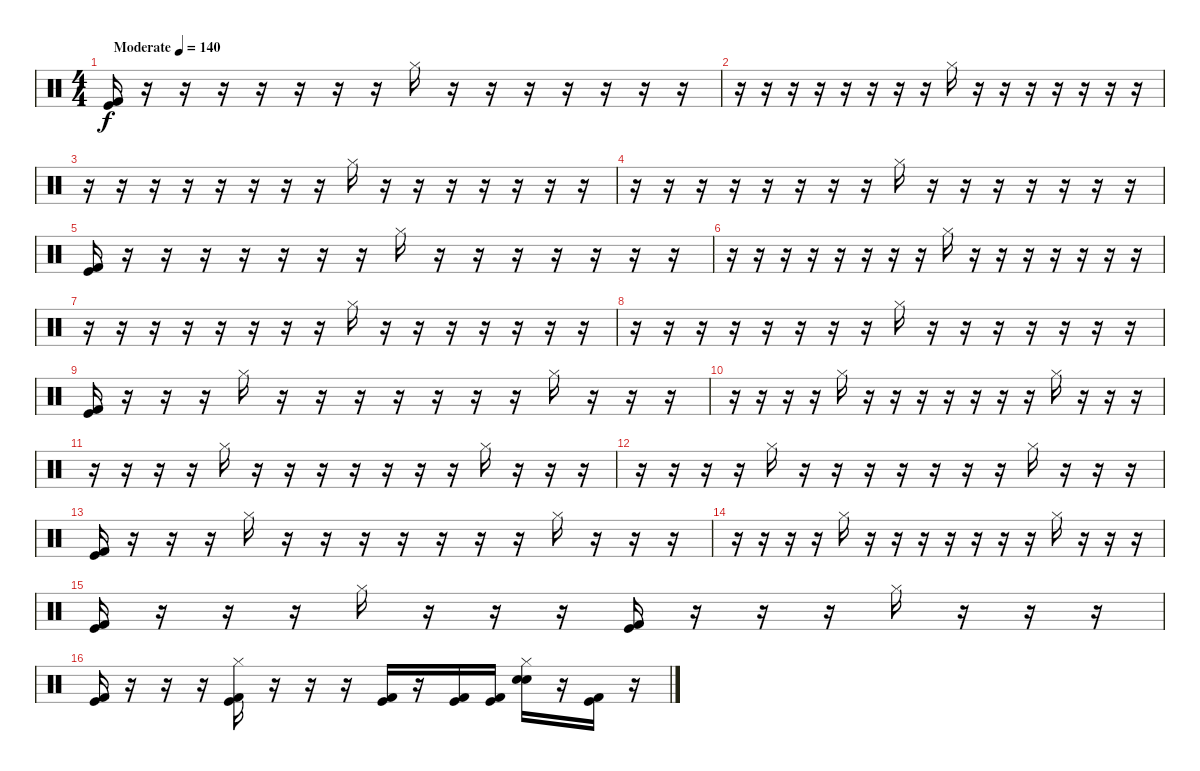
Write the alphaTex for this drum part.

\track "" {instrument percussion}
\staff {score}
\articulation defaults
\ts (4 4)
\tempo (140 "Moderate")
\clef neutral
\ks c
("Kick (hit)" "Kick (hit) 2").16{dy f} r.16 r.16 r.16 r.16 r.16 r.16 r.16 "Hi-Hat (closed)".16 r.16 r.16 r.16 r.16 r.16 r.16 r.16 |
r.16 r.16 r.16 r.16 r.16 r.16 r.16 r.16 "Hi-Hat (closed)".16 r.16 r.16 r.16 r.16 r.16 r.16 r.16 |
r.16 r.16 r.16 r.16 r.16 r.16 r.16 r.16 "Hi-Hat (closed)".16 r.16 r.16 r.16 r.16 r.16 r.16 r.16 |
r.16 r.16 r.16 r.16 r.16 r.16 r.16 r.16 "Hi-Hat (closed)".16 r.16 r.16 r.16 r.16 r.16 r.16 r.16 |
("Kick (hit)" "Kick (hit) 2").16 r.16 r.16 r.16 r.16 r.16 r.16 r.16 "Hi-Hat (closed)".16 r.16 r.16 r.16 r.16 r.16 r.16 r.16 |
r.16 r.16 r.16 r.16 r.16 r.16 r.16 r.16 "Hi-Hat (closed)".16 r.16 r.16 r.16 r.16 r.16 r.16 r.16 |
r.16 r.16 r.16 r.16 r.16 r.16 r.16 r.16 "Hi-Hat (closed)".16 r.16 r.16 r.16 r.16 r.16 r.16 r.16 |
r.16 r.16 r.16 r.16 r.16 r.16 r.16 r.16 "Hi-Hat (closed)".16 r.16 r.16 r.16 r.16 r.16 r.16 r.16 |
("Kick (hit)" "Kick (hit) 2").16 r.16 r.16 r.16 "Hi-Hat (closed)".16 r.16 r.16 r.16 r.16 r.16 r.16 r.16 "Hi-Hat (closed)".16 r.16 r.16 r.16 |
r.16 r.16 r.16 r.16 "Hi-Hat (closed)".16 r.16 r.16 r.16 r.16 r.16 r.16 r.16 "Hi-Hat (closed)".16 r.16 r.16 r.16 |
r.16 r.16 r.16 r.16 "Hi-Hat (closed)".16 r.16 r.16 r.16 r.16 r.16 r.16 r.16 "Hi-Hat (closed)".16 r.16 r.16 r.16 |
r.16 r.16 r.16 r.16 "Hi-Hat (closed)".16 r.16 r.16 r.16 r.16 r.16 r.16 r.16 "Hi-Hat (closed)".16 r.16 r.16 r.16 |
("Kick (hit)" "Kick (hit) 2").16 r.16 r.16 r.16 "Hi-Hat (closed)".16 r.16 r.16 r.16 r.16 r.16 r.16 r.16 "Hi-Hat (closed)".16 r.16 r.16 r.16 |
r.16 r.16 r.16 r.16 "Hi-Hat (closed)".16 r.16 r.16 r.16 r.16 r.16 r.16 r.16 "Hi-Hat (closed)".16 r.16 r.16 r.16 |
("Kick (hit)" "Kick (hit) 2").16 r.16 r.16 r.16 "Hi-Hat (closed)".16 r.16 r.16 r.16 ("Kick (hit)" "Kick (hit) 2").16 r.16 r.16 r.16 "Hi-Hat (closed)".16 r.16 r.16 r.16 |
("Kick (hit)" "Kick (hit) 2").16 r.16 r.16 r.16 ("Hi-Hat (closed)" "Kick (hit)" "Kick (hit) 2").16 r.16 r.16 r.16 ("Kick (hit)" "Kick (hit) 2").16 r.16 ("Kick (hit)" "Kick (hit) 2").16 ("Kick (hit)" "Kick (hit) 2").16 ("Hi-Hat (closed)" "Electric Snare (hit)" "Electric Snare (hit)").16 r.16 ("Kick (hit)" "Kick (hit) 2").16 r.16
